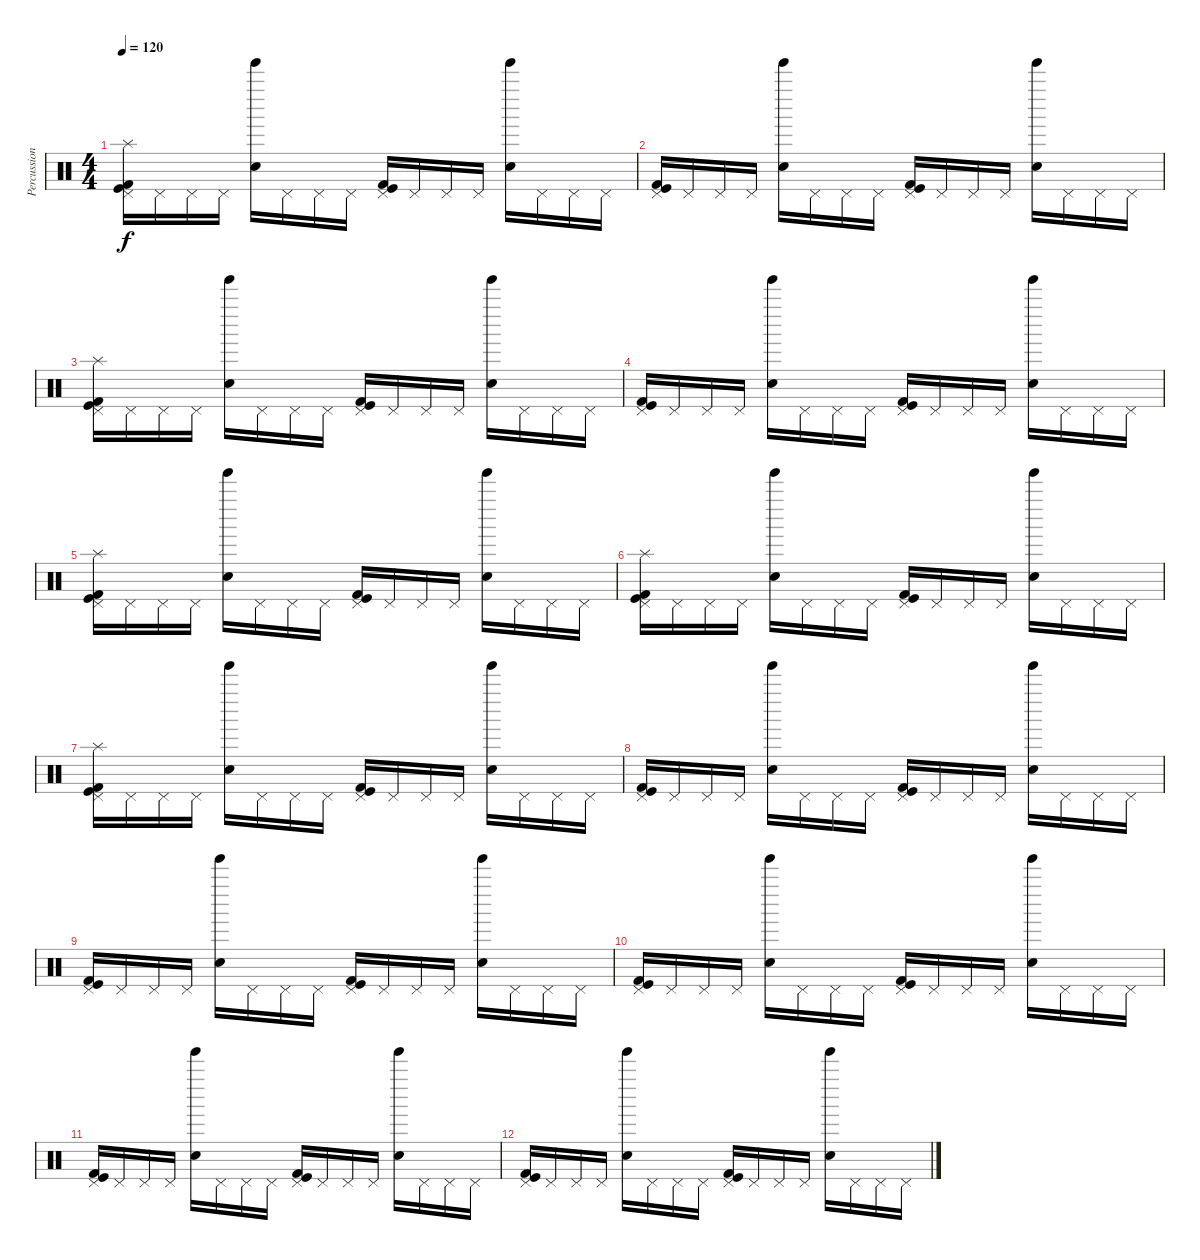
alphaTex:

\track ("Percussion" "Percussion") {instrument percussion}
\staff {score}
\articulation defaults
\ts (4 4)
\tempo 120
\clef neutral
\ks c
("Splash (hit)" "Pedal Hi-Hat (hit)" "Kick (hit)" "Kick (hit) 2").16{dy f} "Pedal Hi-Hat (hit)".16 "Pedal Hi-Hat (hit)".16 "Pedal Hi-Hat (hit)".16 ("Tinkle Bell (hit)" "Snare (hit) 2").16 "Pedal Hi-Hat (hit)".16 "Pedal Hi-Hat (hit)".16 "Pedal Hi-Hat (hit)".16 ("Pedal Hi-Hat (hit)" "Kick (hit)" "Kick (hit) 2").16 "Pedal Hi-Hat (hit)".16 "Pedal Hi-Hat (hit)".16 "Pedal Hi-Hat (hit)".16 ("Tinkle Bell (hit)" "Snare (hit) 2").16 "Pedal Hi-Hat (hit)".16 "Pedal Hi-Hat (hit)".16 "Pedal Hi-Hat (hit)".16 |
("Pedal Hi-Hat (hit)" "Kick (hit)" "Kick (hit) 2").16 "Pedal Hi-Hat (hit)".16 "Pedal Hi-Hat (hit)".16 "Pedal Hi-Hat (hit)".16 ("Tinkle Bell (hit)" "Snare (hit) 2").16 "Pedal Hi-Hat (hit)".16 "Pedal Hi-Hat (hit)".16 "Pedal Hi-Hat (hit)".16 ("Pedal Hi-Hat (hit)" "Kick (hit)" "Kick (hit) 2").16 "Pedal Hi-Hat (hit)".16 "Pedal Hi-Hat (hit)".16 "Pedal Hi-Hat (hit)".16 ("Tinkle Bell (hit)" "Snare (hit) 2").16 "Pedal Hi-Hat (hit)".16 "Pedal Hi-Hat (hit)".16 "Pedal Hi-Hat (hit)".16 |
("Splash (hit)" "Pedal Hi-Hat (hit)" "Kick (hit)" "Kick (hit) 2").16 "Pedal Hi-Hat (hit)".16 "Pedal Hi-Hat (hit)".16 "Pedal Hi-Hat (hit)".16 ("Tinkle Bell (hit)" "Snare (hit) 2").16 "Pedal Hi-Hat (hit)".16 "Pedal Hi-Hat (hit)".16 "Pedal Hi-Hat (hit)".16 ("Pedal Hi-Hat (hit)" "Kick (hit)" "Kick (hit) 2").16 "Pedal Hi-Hat (hit)".16 "Pedal Hi-Hat (hit)".16 "Pedal Hi-Hat (hit)".16 ("Tinkle Bell (hit)" "Snare (hit) 2").16 "Pedal Hi-Hat (hit)".16 "Pedal Hi-Hat (hit)".16 "Pedal Hi-Hat (hit)".16 |
("Pedal Hi-Hat (hit)" "Kick (hit)" "Kick (hit) 2").16 "Pedal Hi-Hat (hit)".16 "Pedal Hi-Hat (hit)".16 "Pedal Hi-Hat (hit)".16 ("Tinkle Bell (hit)" "Snare (hit) 2").16 "Pedal Hi-Hat (hit)".16 "Pedal Hi-Hat (hit)".16 "Pedal Hi-Hat (hit)".16 ("Pedal Hi-Hat (hit)" "Kick (hit)" "Kick (hit) 2").16 "Pedal Hi-Hat (hit)".16 "Pedal Hi-Hat (hit)".16 "Pedal Hi-Hat (hit)".16 ("Tinkle Bell (hit)" "Snare (hit) 2").16 "Pedal Hi-Hat (hit)".16 "Pedal Hi-Hat (hit)".16 "Pedal Hi-Hat (hit)".16 |
("Splash (hit)" "Pedal Hi-Hat (hit)" "Kick (hit)" "Kick (hit) 2").16 "Pedal Hi-Hat (hit)".16 "Pedal Hi-Hat (hit)".16 "Pedal Hi-Hat (hit)".16 ("Tinkle Bell (hit)" "Snare (hit) 2").16 "Pedal Hi-Hat (hit)".16 "Pedal Hi-Hat (hit)".16 "Pedal Hi-Hat (hit)".16 ("Pedal Hi-Hat (hit)" "Kick (hit)" "Kick (hit) 2").16 "Pedal Hi-Hat (hit)".16 "Pedal Hi-Hat (hit)".16 "Pedal Hi-Hat (hit)".16 ("Tinkle Bell (hit)" "Snare (hit) 2").16 "Pedal Hi-Hat (hit)".16 "Pedal Hi-Hat (hit)".16 "Pedal Hi-Hat (hit)".16 |
("Splash (hit)" "Pedal Hi-Hat (hit)" "Kick (hit)" "Kick (hit) 2").16 "Pedal Hi-Hat (hit)".16 "Pedal Hi-Hat (hit)".16 "Pedal Hi-Hat (hit)".16 ("Tinkle Bell (hit)" "Snare (hit) 2").16 "Pedal Hi-Hat (hit)".16 "Pedal Hi-Hat (hit)".16 "Pedal Hi-Hat (hit)".16 ("Pedal Hi-Hat (hit)" "Kick (hit)" "Kick (hit) 2").16 "Pedal Hi-Hat (hit)".16 "Pedal Hi-Hat (hit)".16 "Pedal Hi-Hat (hit)".16 ("Tinkle Bell (hit)" "Snare (hit) 2").16 "Pedal Hi-Hat (hit)".16 "Pedal Hi-Hat (hit)".16 "Pedal Hi-Hat (hit)".16 |
("Splash (hit)" "Pedal Hi-Hat (hit)" "Kick (hit)" "Kick (hit) 2").16 "Pedal Hi-Hat (hit)".16 "Pedal Hi-Hat (hit)".16 "Pedal Hi-Hat (hit)".16 ("Tinkle Bell (hit)" "Snare (hit) 2").16 "Pedal Hi-Hat (hit)".16 "Pedal Hi-Hat (hit)".16 "Pedal Hi-Hat (hit)".16 ("Pedal Hi-Hat (hit)" "Kick (hit)" "Kick (hit) 2").16 "Pedal Hi-Hat (hit)".16 "Pedal Hi-Hat (hit)".16 "Pedal Hi-Hat (hit)".16 ("Tinkle Bell (hit)" "Snare (hit) 2").16 "Pedal Hi-Hat (hit)".16 "Pedal Hi-Hat (hit)".16 "Pedal Hi-Hat (hit)".16 |
("Pedal Hi-Hat (hit)" "Kick (hit)" "Kick (hit) 2").16 "Pedal Hi-Hat (hit)".16 "Pedal Hi-Hat (hit)".16 "Pedal Hi-Hat (hit)".16 ("Tinkle Bell (hit)" "Snare (hit) 2").16 "Pedal Hi-Hat (hit)".16 "Pedal Hi-Hat (hit)".16 "Pedal Hi-Hat (hit)".16 ("Pedal Hi-Hat (hit)" "Kick (hit)" "Kick (hit) 2").16 "Pedal Hi-Hat (hit)".16 "Pedal Hi-Hat (hit)".16 "Pedal Hi-Hat (hit)".16 ("Tinkle Bell (hit)" "Snare (hit) 2").16 "Pedal Hi-Hat (hit)".16 "Pedal Hi-Hat (hit)".16 "Pedal Hi-Hat (hit)".16 |
("Pedal Hi-Hat (hit)" "Kick (hit)" "Kick (hit) 2").16 "Pedal Hi-Hat (hit)".16 "Pedal Hi-Hat (hit)".16 "Pedal Hi-Hat (hit)".16 ("Tinkle Bell (hit)" "Snare (hit) 2").16 "Pedal Hi-Hat (hit)".16 "Pedal Hi-Hat (hit)".16 "Pedal Hi-Hat (hit)".16 ("Pedal Hi-Hat (hit)" "Kick (hit)" "Kick (hit) 2").16 "Pedal Hi-Hat (hit)".16 "Pedal Hi-Hat (hit)".16 "Pedal Hi-Hat (hit)".16 ("Tinkle Bell (hit)" "Snare (hit) 2").16 "Pedal Hi-Hat (hit)".16 "Pedal Hi-Hat (hit)".16 "Pedal Hi-Hat (hit)".16 |
("Pedal Hi-Hat (hit)" "Kick (hit)" "Kick (hit) 2").16 "Pedal Hi-Hat (hit)".16 "Pedal Hi-Hat (hit)".16 "Pedal Hi-Hat (hit)".16 ("Tinkle Bell (hit)" "Snare (hit) 2").16 "Pedal Hi-Hat (hit)".16 "Pedal Hi-Hat (hit)".16 "Pedal Hi-Hat (hit)".16 ("Pedal Hi-Hat (hit)" "Kick (hit)" "Kick (hit) 2").16 "Pedal Hi-Hat (hit)".16 "Pedal Hi-Hat (hit)".16 "Pedal Hi-Hat (hit)".16 ("Tinkle Bell (hit)" "Snare (hit) 2").16 "Pedal Hi-Hat (hit)".16 "Pedal Hi-Hat (hit)".16 "Pedal Hi-Hat (hit)".16 |
("Pedal Hi-Hat (hit)" "Kick (hit)" "Kick (hit) 2").16 "Pedal Hi-Hat (hit)".16 "Pedal Hi-Hat (hit)".16 "Pedal Hi-Hat (hit)".16 ("Tinkle Bell (hit)" "Snare (hit) 2").16 "Pedal Hi-Hat (hit)".16 "Pedal Hi-Hat (hit)".16 "Pedal Hi-Hat (hit)".16 ("Pedal Hi-Hat (hit)" "Kick (hit)" "Kick (hit) 2").16 "Pedal Hi-Hat (hit)".16 "Pedal Hi-Hat (hit)".16 "Pedal Hi-Hat (hit)".16 ("Tinkle Bell (hit)" "Snare (hit) 2").16 "Pedal Hi-Hat (hit)".16 "Pedal Hi-Hat (hit)".16 "Pedal Hi-Hat (hit)".16 |
("Pedal Hi-Hat (hit)" "Kick (hit)" "Kick (hit) 2").16 "Pedal Hi-Hat (hit)".16 "Pedal Hi-Hat (hit)".16 "Pedal Hi-Hat (hit)".16 ("Tinkle Bell (hit)" "Snare (hit) 2").16 "Pedal Hi-Hat (hit)".16 "Pedal Hi-Hat (hit)".16 "Pedal Hi-Hat (hit)".16 ("Pedal Hi-Hat (hit)" "Kick (hit)" "Kick (hit) 2").16 "Pedal Hi-Hat (hit)".16 "Pedal Hi-Hat (hit)".16 "Pedal Hi-Hat (hit)".16 ("Tinkle Bell (hit)" "Snare (hit) 2").16 "Pedal Hi-Hat (hit)".16 "Pedal Hi-Hat (hit)".16 "Pedal Hi-Hat (hit)".16
